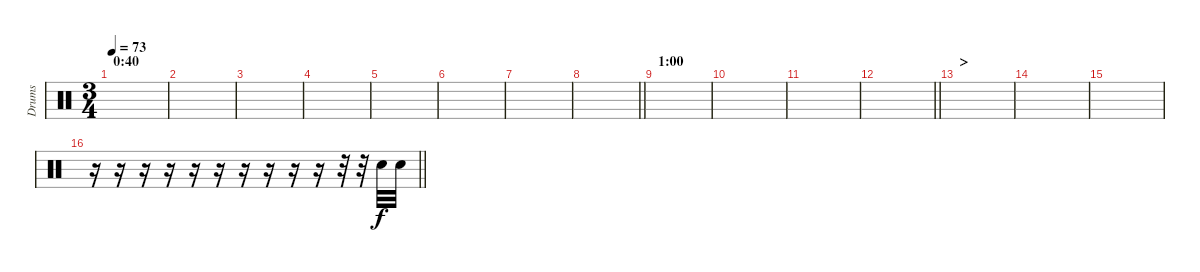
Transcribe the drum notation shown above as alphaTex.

\track ("Drums" "Drums") {instrument percussion}
\staff {score}
\articulation defaults
\ts (3 4)
\section ("" "0:40")
\tempo 73
\clef neutral
\ks c
|
|
|
|
|
|
|
\barLineRight lightlight
|
\section ("" "1:00")
|
|
|
\barLineRight lightlight
|
\section ("" ">")
|
|
|
\barLineRight lightlight
r.16 r.16 r.16 r.16 r.16 r.16 r.16 r.16 r.16 r.16 r.32 r.32 "Electric Snare (hit)".32 "Electric Snare (hit)".32
